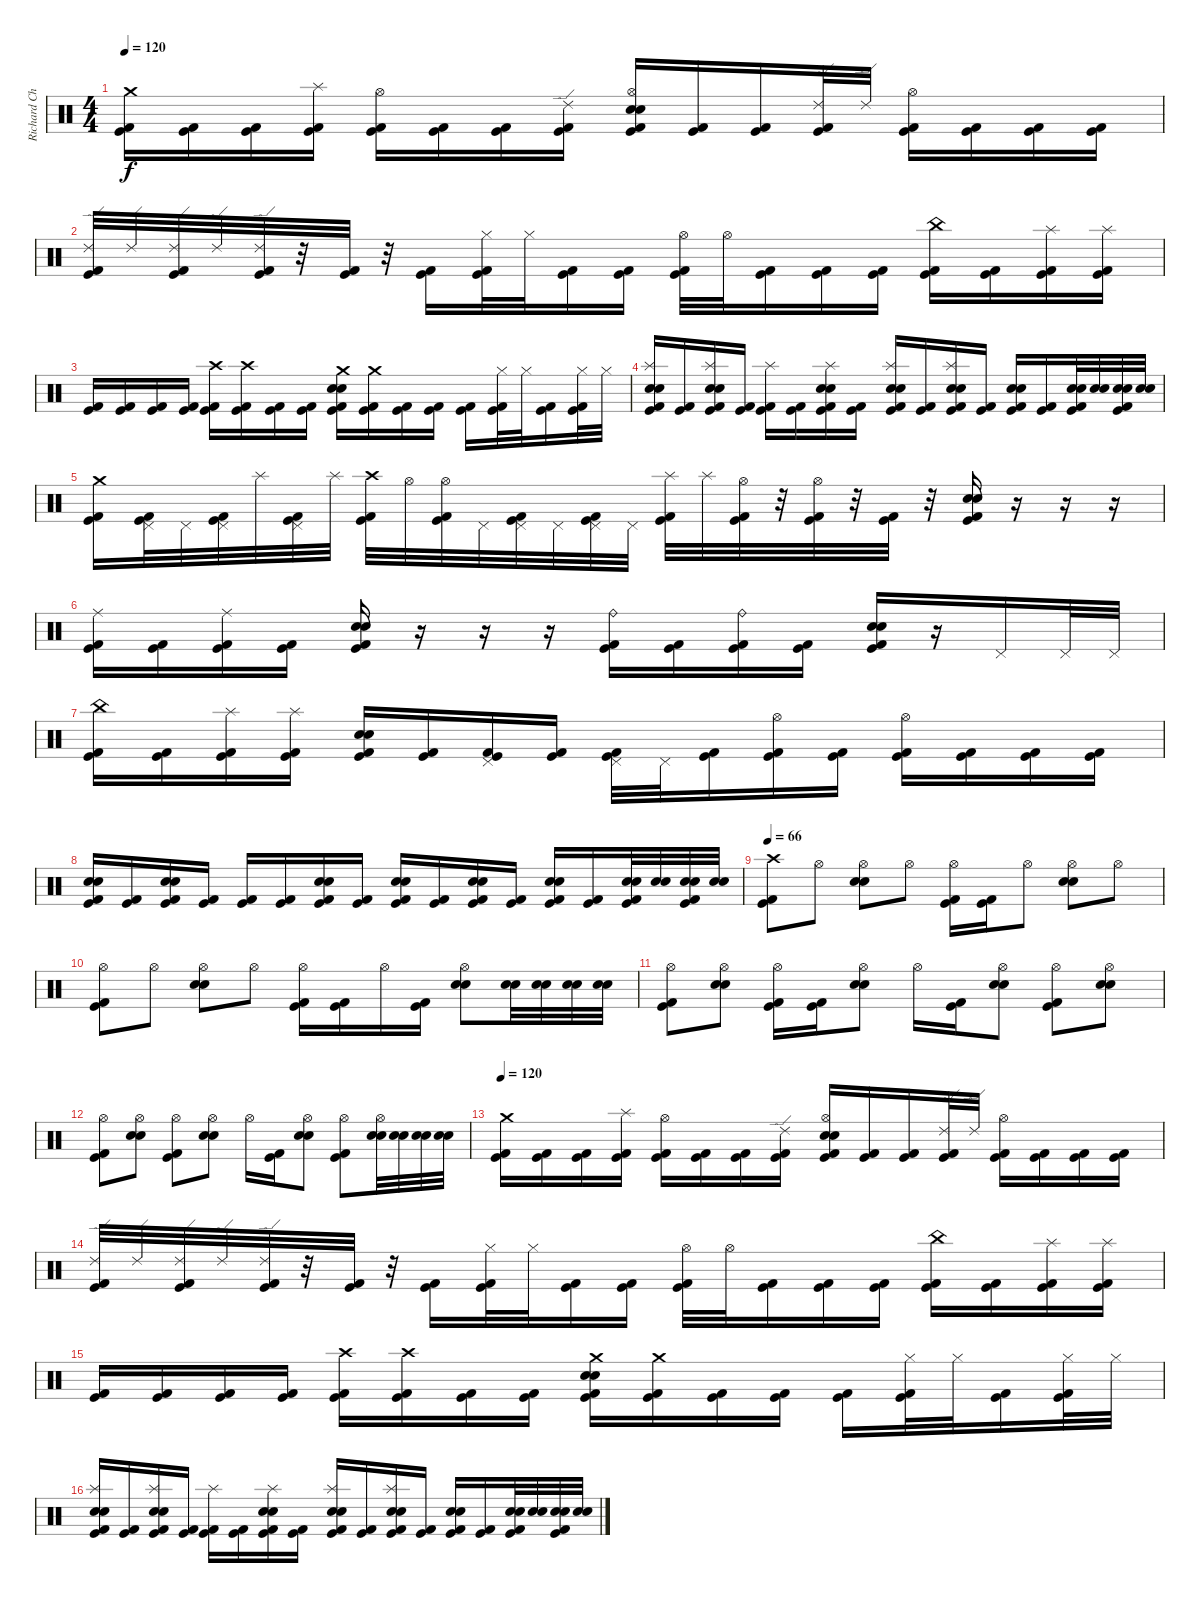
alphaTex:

\track ("Richard Christy" "Richard Ch") {instrument percussion}
\staff {score}
\articulation defaults
\ts (4 4)
\tempo 120
\clef neutral
\ks c
("Crash medium (hit)" "Kick (hit) 2" "Kick (hit)").16{dy f} ("Kick (hit)" "Kick (hit) 2").16 ("Kick (hit)" "Kick (hit) 2").16 ("Splash (hit)" "Kick (hit)" "Kick (hit) 2").16 ("Hi-Hat (open)" "Kick (hit)" "Kick (hit) 2").16 ("Kick (hit)" "Kick (hit) 2").16 ("Kick (hit)" "Kick (hit) 2").16 ("Ride (edge) 2" "Kick (hit)" "Kick (hit) 2").16 ("Hi-Hat (open)" "Snare (hit) 2" "Electric Snare (hit)" "Kick (hit)" "Kick (hit) 2").16 ("Kick (hit)" "Kick (hit) 2").16 ("Kick (hit)" "Kick (hit) 2").16 ("Ride (edge) 2" "Kick (hit)" "Kick (hit) 2").32 "Ride (edge) 2".32 ("Hi-Hat (open)" "Kick (hit)" "Kick (hit) 2").16 ("Kick (hit)" "Kick (hit) 2").16 ("Kick (hit)" "Kick (hit) 2").16 ("Kick (hit)" "Kick (hit) 2").16 |
("Ride (edge) 2" "Kick (hit)" "Kick (hit) 2").32 "Ride (edge) 2".32 ("Ride (edge) 2" "Kick (hit)" "Kick (hit) 2").32 "Ride (edge) 2".32 ("Ride (edge) 2" "Kick (hit)" "Kick (hit) 2").32 r.32 ("Kick (hit)" "Kick (hit) 2").32 r.32 ("Kick (hit)" "Kick (hit) 2").16 ("Hi-Hat (closed)" "Kick (hit)" "Kick (hit) 2").32 "Hi-Hat (closed)".32 ("Kick (hit)" "Kick (hit) 2").16 ("Kick (hit)" "Kick (hit) 2").16 ("Hi-Hat (open)" "Kick (hit)" "Kick (hit) 2").32 "Hi-Hat (open)".32 ("Kick (hit)" "Kick (hit) 2").16 ("Kick (hit)" "Kick (hit) 2").16 ("Kick (hit)" "Kick (hit) 2").16 ("China (hit)" "Kick (hit)" "Kick (hit) 2").16 ("Kick (hit)" "Kick (hit) 2").16 ("Splash (hit)" "Kick (hit)" "Kick (hit) 2").16 ("Splash (hit)" "Kick (hit)" "Kick (hit) 2").16 |
("Kick (hit)" "Kick (hit) 2").16 ("Kick (hit)" "Kick (hit) 2").16 ("Kick (hit)" "Kick (hit) 2").16 ("Kick (hit)" "Kick (hit) 2").16 ("Crash high (hit)" "Kick (hit)" "Kick (hit) 2").16 ("Crash high (hit)" "Kick (hit)" "Kick (hit) 2").16 ("Kick (hit)" "Kick (hit) 2").16 ("Kick (hit)" "Kick (hit) 2").16 ("Crash medium (hit)" "Snare (hit) 2" "Electric Snare (hit)" "Kick (hit)" "Kick (hit) 2").16 ("Crash medium (hit)" "Kick (hit)" "Kick (hit) 2").16 ("Kick (hit)" "Kick (hit) 2").16 ("Kick (hit)" "Kick (hit) 2").16 ("Kick (hit)" "Kick (hit) 2").16 ("Hi-Hat (closed)" "Kick (hit)" "Kick (hit) 2").32 "Hi-Hat (closed)".32 ("Kick (hit)" "Kick (hit) 2").16 ("Hi-Hat (closed)" "Kick (hit)" "Kick (hit) 2").32 "Hi-Hat (closed)".32 |
("Snare (hit) 2" "Electric Snare (hit)" "Splash (hit)" "Kick (hit)" "Kick (hit) 2").16 ("Kick (hit)" "Kick (hit) 2").16 ("Electric Snare (hit)" "Snare (hit) 2" "Splash (hit)" "Kick (hit)" "Kick (hit) 2").16 ("Kick (hit)" "Kick (hit) 2").16 ("Splash (hit)" "Kick (hit)" "Kick (hit) 2").16 ("Kick (hit)" "Kick (hit) 2").16 ("Electric Snare (hit)" "Snare (hit) 2" "Splash (hit)" "Kick (hit)" "Kick (hit) 2").16 ("Kick (hit)" "Kick (hit) 2").16 ("Splash (hit)" "Electric Snare (hit)" "Snare (hit) 2" "Kick (hit)" "Kick (hit) 2").16 ("Kick (hit)" "Kick (hit) 2").16 ("Splash (hit)" "Snare (hit) 2" "Electric Snare (hit)" "Kick (hit)" "Kick (hit) 2").16 ("Kick (hit)" "Kick (hit) 2").16 ("Snare (hit) 2" "Electric Snare (hit)" "Kick (hit)" "Kick (hit) 2").16 ("Kick (hit)" "Kick (hit) 2").16 ("Snare (hit) 2" "Electric Snare (hit)" "Kick (hit)" "Kick (hit) 2").32 ("Snare (hit) 2" "Electric Snare (hit)").32 ("Snare (hit) 2" "Electric Snare (hit)" "Kick (hit)" "Kick (hit) 2").32 ("Snare (hit) 2" "Electric Snare (hit)").32 |
("Crash medium (hit)" "Kick (hit)" "Kick (hit) 2").16 ("Pedal Hi-Hat (hit)" "Kick (hit)" "Kick (hit) 2").32 "Pedal Hi-Hat (hit)".32 ("Pedal Hi-Hat (hit)" "Kick (hit)" "Kick (hit) 2").32 "Splash (hit)".32 ("Pedal Hi-Hat (hit)" "Kick (hit)" "Kick (hit) 2").32 "Splash (hit)".32 ("Crash high (hit)" "Kick (hit)" "Kick (hit) 2").32 "Hi-Hat (open)".32 ("Hi-Hat (open)" "Kick (hit)" "Kick (hit) 2").32 "Pedal Hi-Hat (hit)".32 ("Pedal Hi-Hat (hit)" "Kick (hit)" "Kick (hit) 2").32 "Pedal Hi-Hat (hit)".32 ("Pedal Hi-Hat (hit)" "Kick (hit)" "Kick (hit) 2").32 "Pedal Hi-Hat (hit)".32 ("Splash (hit)" "Kick (hit)" "Kick (hit) 2").32 "Splash (hit)".32 ("Hi-Hat (open)" "Kick (hit)" "Kick (hit) 2").32 r.32 ("Hi-Hat (open)" "Kick (hit)" "Kick (hit) 2").32 r.32 ("Kick (hit)" "Kick (hit) 2").32 r.32 ("Electric Snare (hit)" "Snare (hit) 2" "Kick (hit)" "Kick (hit) 2").16 r.16 r.16 r.16 |
("Ride (middle)" "Kick (hit)" "Kick (hit) 2").16 ("Kick (hit)" "Kick (hit) 2").16 ("Ride (middle)" "Kick (hit)" "Kick (hit) 2").16 ("Kick (hit)" "Kick (hit) 2").16 ("Electric Snare (hit)" "Snare (hit) 2" "Kick (hit)" "Kick (hit) 2").16 r.16 r.16 r.16 ("Ride (bell)" "Kick (hit)" "Kick (hit) 2").16 ("Kick (hit)" "Kick (hit) 2").16 ("Ride (bell)" "Kick (hit)" "Kick (hit) 2").16 ("Kick (hit)" "Kick (hit) 2").16 ("Electric Snare (hit)" "Snare (hit) 2" "Kick (hit)" "Kick (hit) 2").16 r.16 "Pedal Hi-Hat (hit)".16 "Pedal Hi-Hat (hit)".32 "Pedal Hi-Hat (hit)".32 |
("China (hit)" "Kick (hit)" "Kick (hit) 2").16 ("Kick (hit)" "Kick (hit) 2").16 ("Splash (hit)" "Kick (hit)" "Kick (hit) 2").16 ("Splash (hit)" "Kick (hit)" "Kick (hit) 2").16 ("Snare (hit) 2" "Electric Snare (hit)" "Kick (hit)" "Kick (hit) 2").16 ("Kick (hit)" "Kick (hit) 2").16 ("Pedal Hi-Hat (hit)" "Kick (hit)" "Kick (hit) 2").16 ("Kick (hit)" "Kick (hit) 2").16 ("Pedal Hi-Hat (hit)" "Kick (hit)" "Kick (hit) 2").32 "Pedal Hi-Hat (hit)".32 ("Kick (hit)" "Kick (hit) 2").16 ("Hi-Hat (open)" "Kick (hit)" "Kick (hit) 2").16 ("Kick (hit)" "Kick (hit) 2").16 ("Hi-Hat (open)" "Kick (hit)" "Kick (hit) 2").16 ("Kick (hit)" "Kick (hit) 2").16 ("Kick (hit)" "Kick (hit) 2").16 ("Kick (hit)" "Kick (hit) 2").16 |
("Snare (hit) 2" "Electric Snare (hit)" "Kick (hit)" "Kick (hit) 2").16 ("Kick (hit)" "Kick (hit) 2").16 ("Electric Snare (hit)" "Snare (hit) 2" "Kick (hit)" "Kick (hit) 2").16 ("Kick (hit)" "Kick (hit) 2").16 ("Kick (hit)" "Kick (hit) 2").16 ("Kick (hit)" "Kick (hit) 2").16 ("Electric Snare (hit)" "Snare (hit) 2" "Kick (hit)" "Kick (hit) 2").16 ("Kick (hit)" "Kick (hit) 2").16 ("Electric Snare (hit)" "Snare (hit) 2" "Kick (hit)" "Kick (hit) 2").16 ("Kick (hit)" "Kick (hit) 2").16 ("Snare (hit) 2" "Electric Snare (hit)" "Kick (hit)" "Kick (hit) 2").16 ("Kick (hit)" "Kick (hit) 2").16 ("Snare (hit) 2" "Electric Snare (hit)" "Kick (hit)" "Kick (hit) 2").16 ("Kick (hit)" "Kick (hit) 2").16 ("Snare (hit) 2" "Electric Snare (hit)" "Kick (hit)" "Kick (hit) 2").32 ("Snare (hit) 2" "Electric Snare (hit)").32 ("Snare (hit) 2" "Electric Snare (hit)" "Kick (hit)" "Kick (hit) 2").32 ("Snare (hit) 2" "Electric Snare (hit)").32 |
\tempo 66
("Crash high (hit)" "Kick (hit) 2" "Kick (hit)").8 "Hi-Hat (open)".8 ("Hi-Hat (open)" "Snare (hit) 2" "Electric Snare (hit)").8 "Hi-Hat (open)".8 ("Hi-Hat (open)" "Kick (hit) 2" "Kick (hit)").16 ("Kick (hit) 2" "Kick (hit)").16 "Hi-Hat (open)".8 ("Hi-Hat (open)" "Snare (hit) 2" "Electric Snare (hit)").8 "Hi-Hat (open)".8 |
("Hi-Hat (open)" "Kick (hit) 2" "Kick (hit)").8 "Hi-Hat (open)".8 ("Hi-Hat (open)" "Snare (hit) 2" "Electric Snare (hit)").8 "Hi-Hat (open)".8 ("Hi-Hat (open)" "Kick (hit) 2" "Kick (hit)").16 ("Kick (hit) 2" "Kick (hit)").16 "Hi-Hat (open)".16 ("Kick (hit)" "Kick (hit) 2").16 ("Hi-Hat (open)" "Snare (hit) 2" "Electric Snare (hit)").8 ("Snare (hit) 2" "Electric Snare (hit)").32 ("Snare (hit) 2" "Electric Snare (hit)").32 ("Snare (hit) 2" "Electric Snare (hit)").32 ("Snare (hit) 2" "Electric Snare (hit)").32 |
("Hi-Hat (open)" "Kick (hit) 2" "Kick (hit)").8 ("Hi-Hat (open)" "Snare (hit) 2" "Electric Snare (hit)").8 ("Hi-Hat (open)" "Kick (hit) 2" "Kick (hit)").16 ("Kick (hit) 2" "Kick (hit)").16 ("Hi-Hat (open)" "Snare (hit) 2" "Electric Snare (hit)").8 "Hi-Hat (open)".16 ("Kick (hit)" "Kick (hit) 2").16 ("Hi-Hat (open)" "Snare (hit) 2" "Electric Snare (hit)").8 ("Hi-Hat (open)" "Kick (hit)" "Kick (hit) 2").8 ("Hi-Hat (open)" "Snare (hit) 2" "Electric Snare (hit)").8 |
("Hi-Hat (open)" "Kick (hit) 2" "Kick (hit)").8 ("Hi-Hat (open)" "Snare (hit) 2" "Electric Snare (hit)").8 ("Hi-Hat (open)" "Kick (hit)" "Kick (hit) 2").8 ("Hi-Hat (open)" "Snare (hit) 2" "Electric Snare (hit)").8 "Hi-Hat (open)".16 ("Kick (hit) 2" "Kick (hit)").16 ("Hi-Hat (open)" "Snare (hit) 2" "Electric Snare (hit)").8 ("Hi-Hat (open)" "Kick (hit)" "Kick (hit) 2").8 ("Hi-Hat (open)" "Snare (hit) 2" "Electric Snare (hit)").32 ("Snare (hit) 2" "Electric Snare (hit)").32 ("Snare (hit) 2" "Electric Snare (hit)").32 ("Snare (hit) 2" "Electric Snare (hit)").32 |
\tempo 120
("Crash medium (hit)" "Kick (hit) 2" "Kick (hit)").16 ("Kick (hit)" "Kick (hit) 2").16 ("Kick (hit)" "Kick (hit) 2").16 ("Splash (hit)" "Kick (hit)" "Kick (hit) 2").16 ("Hi-Hat (open)" "Kick (hit)" "Kick (hit) 2").16 ("Kick (hit)" "Kick (hit) 2").16 ("Kick (hit)" "Kick (hit) 2").16 ("Ride (edge) 2" "Kick (hit)" "Kick (hit) 2").16 ("Hi-Hat (open)" "Snare (hit) 2" "Electric Snare (hit)" "Kick (hit)" "Kick (hit) 2").16 ("Kick (hit)" "Kick (hit) 2").16 ("Kick (hit)" "Kick (hit) 2").16 ("Ride (edge) 2" "Kick (hit)" "Kick (hit) 2").32 "Ride (edge) 2".32 ("Hi-Hat (open)" "Kick (hit)" "Kick (hit) 2").16 ("Kick (hit)" "Kick (hit) 2").16 ("Kick (hit)" "Kick (hit) 2").16 ("Kick (hit)" "Kick (hit) 2").16 |
("Ride (edge) 2" "Kick (hit)" "Kick (hit) 2").32 "Ride (edge) 2".32 ("Ride (edge) 2" "Kick (hit)" "Kick (hit) 2").32 "Ride (edge) 2".32 ("Ride (edge) 2" "Kick (hit)" "Kick (hit) 2").32 r.32 ("Kick (hit)" "Kick (hit) 2").32 r.32 ("Kick (hit)" "Kick (hit) 2").16 ("Hi-Hat (closed)" "Kick (hit)" "Kick (hit) 2").32 "Hi-Hat (closed)".32 ("Kick (hit)" "Kick (hit) 2").16 ("Kick (hit)" "Kick (hit) 2").16 ("Hi-Hat (open)" "Kick (hit)" "Kick (hit) 2").32 "Hi-Hat (open)".32 ("Kick (hit)" "Kick (hit) 2").16 ("Kick (hit)" "Kick (hit) 2").16 ("Kick (hit)" "Kick (hit) 2").16 ("China (hit)" "Kick (hit)" "Kick (hit) 2").16 ("Kick (hit)" "Kick (hit) 2").16 ("Splash (hit)" "Kick (hit)" "Kick (hit) 2").16 ("Splash (hit)" "Kick (hit)" "Kick (hit) 2").16 |
("Kick (hit)" "Kick (hit) 2").16 ("Kick (hit)" "Kick (hit) 2").16 ("Kick (hit)" "Kick (hit) 2").16 ("Kick (hit)" "Kick (hit) 2").16 ("Crash high (hit)" "Kick (hit)" "Kick (hit) 2").16 ("Crash high (hit)" "Kick (hit)" "Kick (hit) 2").16 ("Kick (hit)" "Kick (hit) 2").16 ("Kick (hit)" "Kick (hit) 2").16 ("Crash medium (hit)" "Snare (hit) 2" "Electric Snare (hit)" "Kick (hit)" "Kick (hit) 2").16 ("Crash medium (hit)" "Kick (hit)" "Kick (hit) 2").16 ("Kick (hit)" "Kick (hit) 2").16 ("Kick (hit)" "Kick (hit) 2").16 ("Kick (hit)" "Kick (hit) 2").16 ("Hi-Hat (closed)" "Kick (hit)" "Kick (hit) 2").32 "Hi-Hat (closed)".32 ("Kick (hit)" "Kick (hit) 2").16 ("Hi-Hat (closed)" "Kick (hit)" "Kick (hit) 2").32 "Hi-Hat (closed)".32 |
("Snare (hit) 2" "Electric Snare (hit)" "Splash (hit)" "Kick (hit)" "Kick (hit) 2").16 ("Kick (hit)" "Kick (hit) 2").16 ("Electric Snare (hit)" "Snare (hit) 2" "Splash (hit)" "Kick (hit)" "Kick (hit) 2").16 ("Kick (hit)" "Kick (hit) 2").16 ("Splash (hit)" "Kick (hit)" "Kick (hit) 2").16 ("Kick (hit)" "Kick (hit) 2").16 ("Electric Snare (hit)" "Snare (hit) 2" "Splash (hit)" "Kick (hit)" "Kick (hit) 2").16 ("Kick (hit)" "Kick (hit) 2").16 ("Splash (hit)" "Electric Snare (hit)" "Snare (hit) 2" "Kick (hit)" "Kick (hit) 2").16 ("Kick (hit)" "Kick (hit) 2").16 ("Splash (hit)" "Snare (hit) 2" "Electric Snare (hit)" "Kick (hit)" "Kick (hit) 2").16 ("Kick (hit)" "Kick (hit) 2").16 ("Snare (hit) 2" "Electric Snare (hit)" "Kick (hit)" "Kick (hit) 2").16 ("Kick (hit)" "Kick (hit) 2").16 ("Snare (hit) 2" "Electric Snare (hit)" "Kick (hit)" "Kick (hit) 2").32 ("Snare (hit) 2" "Electric Snare (hit)").32 ("Snare (hit) 2" "Electric Snare (hit)" "Kick (hit)" "Kick (hit) 2").32 ("Snare (hit) 2" "Electric Snare (hit)").32
